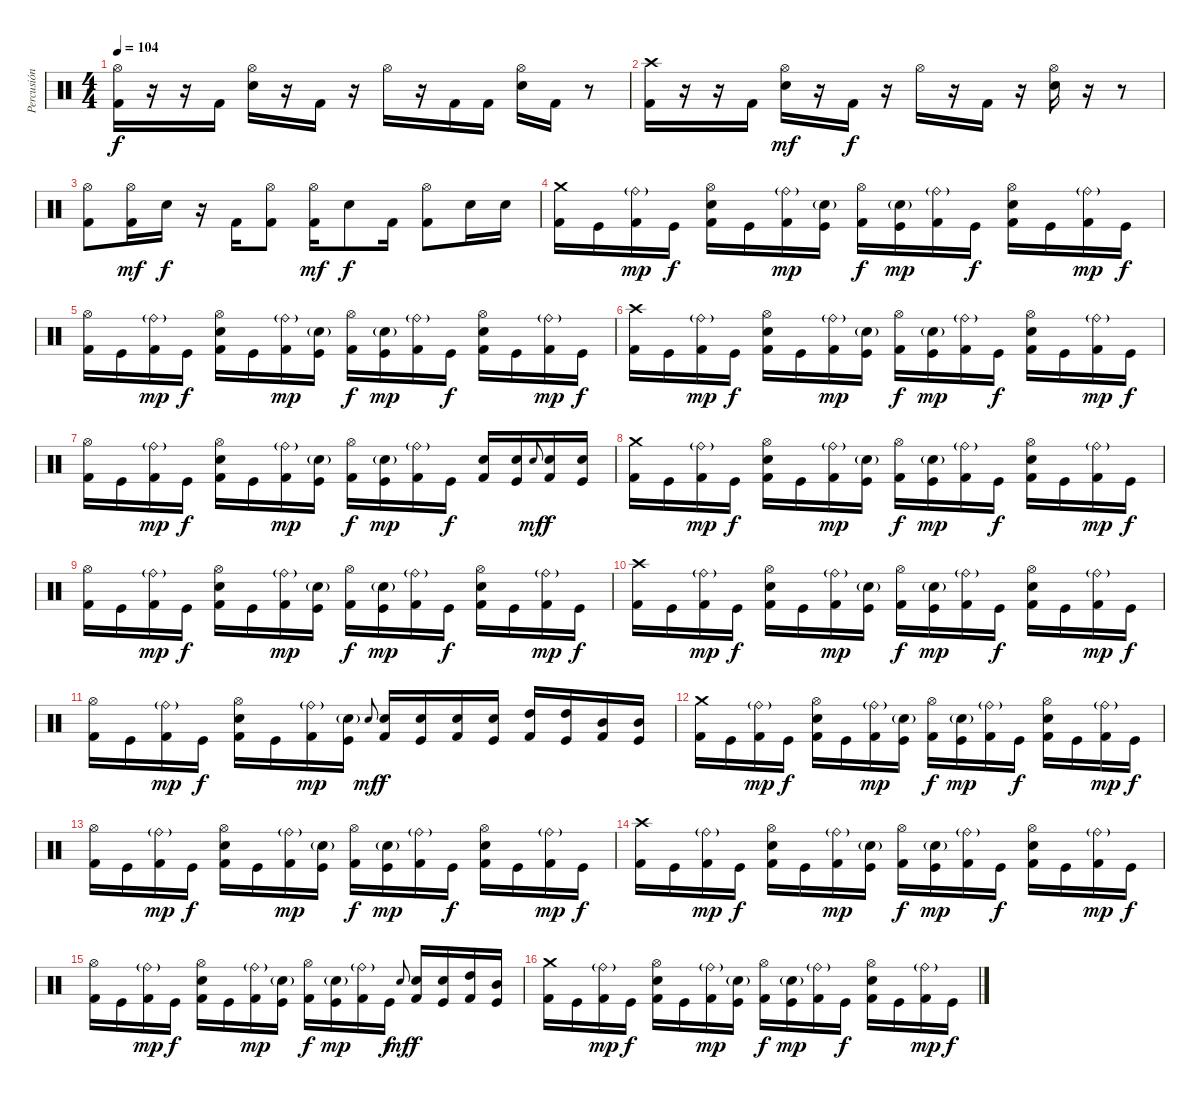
\track ("Percusión" "Percusión") {instrument percussion}
\staff {score}
\articulation defaults
\ts (4 4)
\tempo 104
\clef neutral
\ks c
("Hi-Hat (open)" "Kick (hit) 2").16{dy f} r.16 r.16 "Kick (hit) 2".16 ("Hi-Hat (open)" "Snare (hit) 2").16 r.16 "Kick (hit) 2".16 r.16 "Hi-Hat (open)".16 r.16 "Kick (hit) 2".16 "Kick (hit) 2".16 ("Hi-Hat (open)" "Snare (hit) 2").16 "Kick (hit) 2".16 r.8 |
("Crash high (hit)" "Kick (hit) 2").16 r.16 r.16 "Kick (hit) 2".16 ("Hi-Hat (open)" "Snare (hit) 2").16{dy mf} r.16 "Kick (hit) 2".16{dy f} r.16 "Hi-Hat (open)".16 r.16 "Kick (hit) 2".16 r.16 ("Hi-Hat (open)" "Snare (hit) 2").16 r.16 r.8 |
("Hi-Hat (open)" "Kick (hit) 2").8 ("Hi-Hat (open)" "Kick (hit) 2").16{dy mf} "Snare (hit) 2".16{dy f} r.16 "Kick (hit) 2".16 ("Hi-Hat (open)" "Kick (hit) 2").8 ("Hi-Hat (open)" "Kick (hit) 2").16{dy mf} "Snare (hit) 2".8{dy f} "Kick (hit) 2".16 ("Hi-Hat (open)" "Kick (hit) 2").8 "Snare (hit) 2".16 "Snare (hit) 2".16 |
("Crash medium (hit)" "Kick (hit) 2").16 "Kick (hit)".16 ("Ride (bell)"{g} "Kick (hit) 2").16{dy mp} "Kick (hit)".16{dy f} ("Hi-Hat (open)" "Snare (hit) 2" "Kick (hit) 2").16 "Kick (hit)".16 ("Ride (bell)"{g} "Kick (hit) 2").16{dy mp} ("Snare (hit) 2"{g} "Kick (hit)").16 ("Hi-Hat (open)" "Kick (hit) 2").16{dy f} ("Snare (hit) 2"{g} "Kick (hit)").16{dy mp} ("Ride (bell)"{g} "Kick (hit) 2").16 "Kick (hit)".16{dy f} ("Hi-Hat (open)" "Snare (hit) 2" "Kick (hit) 2").16 "Kick (hit)".16 ("Ride (bell)"{g} "Kick (hit) 2").16{dy mp} "Kick (hit)".16{dy f} |
("Hi-Hat (open)" "Kick (hit) 2").16 "Kick (hit)".16 ("Ride (bell)"{g} "Kick (hit) 2").16{dy mp} "Kick (hit)".16{dy f} ("Hi-Hat (open)" "Snare (hit) 2" "Kick (hit) 2").16 "Kick (hit)".16 ("Ride (bell)"{g} "Kick (hit) 2").16{dy mp} ("Snare (hit) 2"{g} "Kick (hit)").16 ("Hi-Hat (open)" "Kick (hit) 2").16{dy f} ("Snare (hit) 2"{g} "Kick (hit)").16{dy mp} ("Ride (bell)"{g} "Kick (hit) 2").16 "Kick (hit)".16{dy f} ("Hi-Hat (open)" "Snare (hit) 2" "Kick (hit) 2").16 "Kick (hit)".16 ("Ride (bell)"{g} "Kick (hit) 2").16{dy mp} "Kick (hit)".16{dy f} |
("Crash high (hit)" "Kick (hit) 2").16 "Kick (hit)".16 ("Ride (bell)"{g} "Kick (hit) 2").16{dy mp} "Kick (hit)".16{dy f} ("Hi-Hat (open)" "Snare (hit) 2" "Kick (hit) 2").16 "Kick (hit)".16 ("Ride (bell)"{g} "Kick (hit) 2").16{dy mp} ("Snare (hit) 2"{g} "Kick (hit)").16 ("Hi-Hat (open)" "Kick (hit) 2").16{dy f} ("Snare (hit) 2"{g} "Kick (hit)").16{dy mp} ("Ride (bell)"{g} "Kick (hit) 2").16 "Kick (hit)".16{dy f} ("Hi-Hat (open)" "Snare (hit) 2" "Kick (hit) 2").16 "Kick (hit)".16 ("Ride (bell)"{g} "Kick (hit) 2").16{dy mp} "Kick (hit)".16{dy f} |
("Hi-Hat (open)" "Kick (hit) 2").16 "Kick (hit)".16 ("Ride (bell)"{g} "Kick (hit) 2").16{dy mp} "Kick (hit)".16{dy f} ("Hi-Hat (open)" "Snare (hit) 2" "Kick (hit) 2").16 "Kick (hit)".16 ("Ride (bell)"{g} "Kick (hit) 2").16{dy mp} ("Snare (hit) 2"{g} "Kick (hit)").16 ("Hi-Hat (open)" "Kick (hit) 2").16{dy f} ("Snare (hit) 2"{g} "Kick (hit)").16{dy mp} ("Ride (bell)"{g} "Kick (hit) 2").16 "Kick (hit)".16{dy f} ("Snare (hit) 2" "Kick (hit) 2").16 ("Snare (hit) 2" "Kick (hit)").16 "Snare (hit) 2".8{gr onbeat dy mf} ("Snare (hit) 2" "Kick (hit) 2").16{dy f} ("Snare (hit) 2" "Kick (hit)").16 |
("Crash medium (hit)" "Kick (hit) 2").16 "Kick (hit)".16 ("Ride (bell)"{g} "Kick (hit) 2").16{dy mp} "Kick (hit)".16{dy f} ("Hi-Hat (open)" "Snare (hit) 2" "Kick (hit) 2").16 "Kick (hit)".16 ("Ride (bell)"{g} "Kick (hit) 2").16{dy mp} ("Snare (hit) 2"{g} "Kick (hit)").16 ("Hi-Hat (open)" "Kick (hit) 2").16{dy f} ("Snare (hit) 2"{g} "Kick (hit)").16{dy mp} ("Ride (bell)"{g} "Kick (hit) 2").16 "Kick (hit)".16{dy f} ("Hi-Hat (open)" "Snare (hit) 2" "Kick (hit) 2").16 "Kick (hit)".16 ("Ride (bell)"{g} "Kick (hit) 2").16{dy mp} "Kick (hit)".16{dy f} |
("Hi-Hat (open)" "Kick (hit) 2").16 "Kick (hit)".16 ("Ride (bell)"{g} "Kick (hit) 2").16{dy mp} "Kick (hit)".16{dy f} ("Hi-Hat (open)" "Snare (hit) 2" "Kick (hit) 2").16 "Kick (hit)".16 ("Ride (bell)"{g} "Kick (hit) 2").16{dy mp} ("Snare (hit) 2"{g} "Kick (hit)").16 ("Hi-Hat (open)" "Kick (hit) 2").16{dy f} ("Snare (hit) 2"{g} "Kick (hit)").16{dy mp} ("Ride (bell)"{g} "Kick (hit) 2").16 "Kick (hit)".16{dy f} ("Hi-Hat (open)" "Snare (hit) 2" "Kick (hit) 2").16 "Kick (hit)".16 ("Ride (bell)"{g} "Kick (hit) 2").16{dy mp} "Kick (hit)".16{dy f} |
("Crash high (hit)" "Kick (hit) 2").16 "Kick (hit)".16 ("Ride (bell)"{g} "Kick (hit) 2").16{dy mp} "Kick (hit)".16{dy f} ("Hi-Hat (open)" "Snare (hit) 2" "Kick (hit) 2").16 "Kick (hit)".16 ("Ride (bell)"{g} "Kick (hit) 2").16{dy mp} ("Snare (hit) 2"{g} "Kick (hit)").16 ("Hi-Hat (open)" "Kick (hit) 2").16{dy f} ("Snare (hit) 2"{g} "Kick (hit)").16{dy mp} ("Ride (bell)"{g} "Kick (hit) 2").16 "Kick (hit)".16{dy f} ("Hi-Hat (open)" "Snare (hit) 2" "Kick (hit) 2").16 "Kick (hit)".16 ("Ride (bell)"{g} "Kick (hit) 2").16{dy mp} "Kick (hit)".16{dy f} |
("Hi-Hat (open)" "Kick (hit) 2").16 "Kick (hit)".16 ("Ride (bell)"{g} "Kick (hit) 2").16{dy mp} "Kick (hit)".16{dy f} ("Hi-Hat (open)" "Snare (hit) 2" "Kick (hit) 2").16 "Kick (hit)".16 ("Ride (bell)"{g} "Kick (hit) 2").16{dy mp} ("Snare (hit) 2"{g} "Kick (hit)").16 "Snare (hit) 2".8{gr onbeat dy mf} ("Snare (hit) 2" "Kick (hit) 2").16{dy f} ("Snare (hit) 2" "Kick (hit)").16 ("Snare (hit) 2" "Kick (hit) 2").16 ("Snare (hit) 2" "Kick (hit)").16 ("High Tom (hit)" "Kick (hit) 2").16 ("High Tom (hit)" "Kick (hit)").16 ("Mid Tom (hit)" "Kick (hit) 2").16 ("Mid Tom (hit)" "Kick (hit)").16 |
("Crash medium (hit)" "Kick (hit) 2").16 "Kick (hit)".16 ("Ride (bell)"{g} "Kick (hit) 2").16{dy mp} "Kick (hit)".16{dy f} ("Hi-Hat (open)" "Snare (hit) 2" "Kick (hit) 2").16 "Kick (hit)".16 ("Ride (bell)"{g} "Kick (hit) 2").16{dy mp} ("Snare (hit) 2"{g} "Kick (hit)").16 ("Hi-Hat (open)" "Kick (hit) 2").16{dy f} ("Snare (hit) 2"{g} "Kick (hit)").16{dy mp} ("Ride (bell)"{g} "Kick (hit) 2").16 "Kick (hit)".16{dy f} ("Hi-Hat (open)" "Snare (hit) 2" "Kick (hit) 2").16 "Kick (hit)".16 ("Ride (bell)"{g} "Kick (hit) 2").16{dy mp} "Kick (hit)".16{dy f} |
("Hi-Hat (open)" "Kick (hit) 2").16 "Kick (hit)".16 ("Ride (bell)"{g} "Kick (hit) 2").16{dy mp} "Kick (hit)".16{dy f} ("Hi-Hat (open)" "Snare (hit) 2" "Kick (hit) 2").16 "Kick (hit)".16 ("Ride (bell)"{g} "Kick (hit) 2").16{dy mp} ("Snare (hit) 2"{g} "Kick (hit)").16 ("Hi-Hat (open)" "Kick (hit) 2").16{dy f} ("Snare (hit) 2"{g} "Kick (hit)").16{dy mp} ("Ride (bell)"{g} "Kick (hit) 2").16 "Kick (hit)".16{dy f} ("Hi-Hat (open)" "Snare (hit) 2" "Kick (hit) 2").16 "Kick (hit)".16 ("Ride (bell)"{g} "Kick (hit) 2").16{dy mp} "Kick (hit)".16{dy f} |
("Crash high (hit)" "Kick (hit) 2").16 "Kick (hit)".16 ("Ride (bell)"{g} "Kick (hit) 2").16{dy mp} "Kick (hit)".16{dy f} ("Hi-Hat (open)" "Snare (hit) 2" "Kick (hit) 2").16 "Kick (hit)".16 ("Ride (bell)"{g} "Kick (hit) 2").16{dy mp} ("Snare (hit) 2"{g} "Kick (hit)").16 ("Hi-Hat (open)" "Kick (hit) 2").16{dy f} ("Snare (hit) 2"{g} "Kick (hit)").16{dy mp} ("Ride (bell)"{g} "Kick (hit) 2").16 "Kick (hit)".16{dy f} ("Hi-Hat (open)" "Snare (hit) 2" "Kick (hit) 2").16 "Kick (hit)".16 ("Ride (bell)"{g} "Kick (hit) 2").16{dy mp} "Kick (hit)".16{dy f} |
("Hi-Hat (open)" "Kick (hit) 2").16 "Kick (hit)".16 ("Ride (bell)"{g} "Kick (hit) 2").16{dy mp} "Kick (hit)".16{dy f} ("Hi-Hat (open)" "Snare (hit) 2" "Kick (hit) 2").16 "Kick (hit)".16 ("Ride (bell)"{g} "Kick (hit) 2").16{dy mp} ("Snare (hit) 2"{g} "Kick (hit)").16 ("Hi-Hat (open)" "Kick (hit) 2").16{dy f} ("Snare (hit) 2"{g} "Kick (hit)").16{dy mp} ("Ride (bell)"{g} "Kick (hit) 2").16 "Kick (hit)".16{dy f} "Snare (hit) 2".8{gr onbeat dy mf} ("Snare (hit) 2" "Kick (hit) 2").16{dy f} ("Snare (hit) 2" "Kick (hit)").16 ("High Tom (hit)" "Kick (hit) 2").16 ("Mid Tom (hit)" "Kick (hit)").16 |
("Crash medium (hit)" "Kick (hit) 2").16 "Kick (hit)".16 ("Ride (bell)"{g} "Kick (hit) 2").16{dy mp} "Kick (hit)".16{dy f} ("Hi-Hat (open)" "Snare (hit) 2" "Kick (hit) 2").16 "Kick (hit)".16 ("Ride (bell)"{g} "Kick (hit) 2").16{dy mp} ("Snare (hit) 2"{g} "Kick (hit)").16 ("Hi-Hat (open)" "Kick (hit) 2").16{dy f} ("Snare (hit) 2"{g} "Kick (hit)").16{dy mp} ("Ride (bell)"{g} "Kick (hit) 2").16 "Kick (hit)".16{dy f} ("Hi-Hat (open)" "Snare (hit) 2" "Kick (hit) 2").16 "Kick (hit)".16 ("Ride (bell)"{g} "Kick (hit) 2").16{dy mp} "Kick (hit)".16{dy f}
